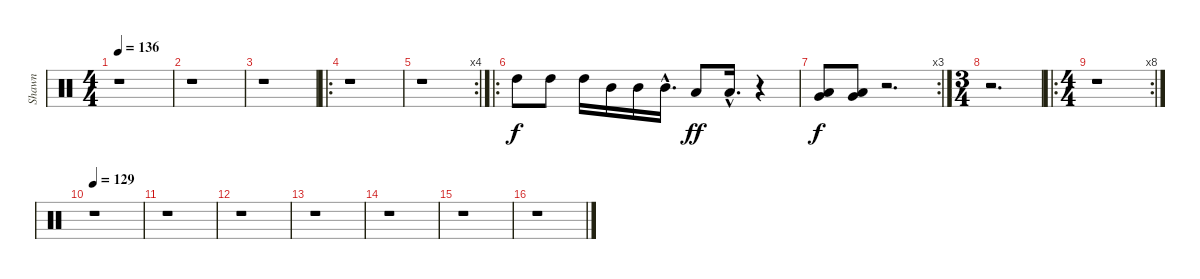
\track ("Shawn" "Shawn") {instrument percussion}
\staff {score}
\articulation defaults
\ts (4 4)
\tempo 136
\clef neutral
\ks c
r.1{dy f} |
r.1 |
r.1 |
\ro
r.1 |
\rc 4
r.1 |
\ro "High Tom (hit)".8 "High Tom (hit)".8 "High Tom (hit)".16 "Mid Tom (hit)".16 "Mid Tom (hit)".16 "Mid Tom (hit)"{hac}.16{d} "Low Floor Tom (hit)".8{dy ff} "Low Floor Tom (hit)"{hac}.16{d}
r.4 |
\rc 3
("Low Floor Tom (hit)" "Very Low Tom (hit)").8{dy f} ("Low Floor Tom (hit)" "Very Low Tom (hit)").8 r.2{d} |
\ts (3 4)
r.2{d} |
\ro
\rc 8
\ts (4 4)
r.1 |
\tempo 129
r.1 |
r.1 |
r.1 |
r.1 |
r.1 |
r.1 |
r.1
